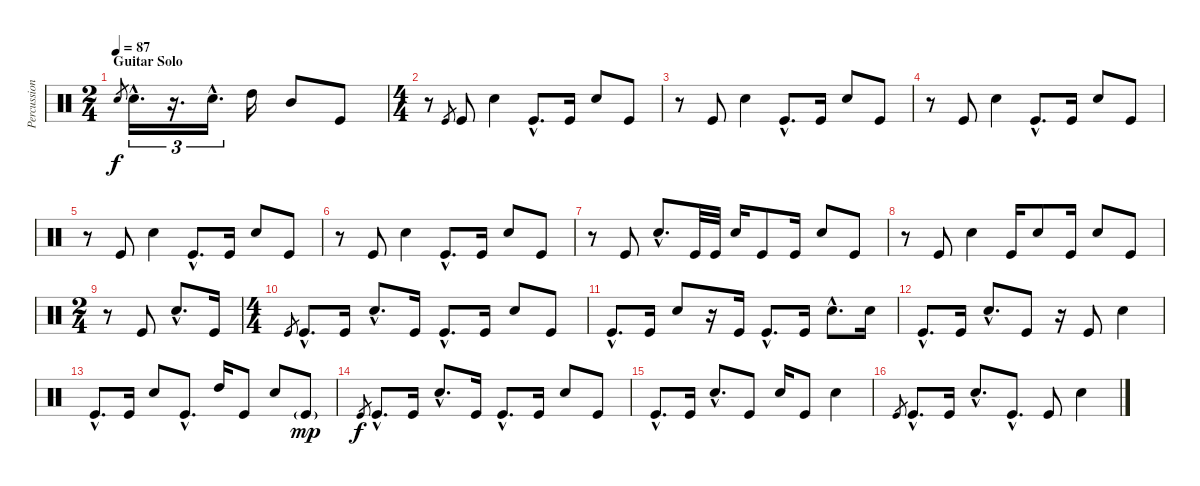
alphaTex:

\track ("Percussion" "Percussion") {instrument percussion}
\staff {score}
\articulation defaults
\ts (2 4)
\section ("" "Guitar Solo")
\tempo 87
\clef neutral
\ks c "Electric Snare (hit)".8{gr dy f} "Electric Snare (hit)"{hac}.16{d tu (3 2)}
r.16{d tu (3 2)} "Electric Snare (hit)"{hac}.16{d tu (3 2)} "High Tom (hit)".16 "Mid Tom (hit)".8 "Kick (hit)".8 |
\ts (4 4)
r.8 "Kick (hit)".8{gr} "Kick (hit)".8 "Electric Snare (hit)".4 "Kick (hit)"{hac}.8{d} "Kick (hit)".16 "Electric Snare (hit)".8 "Kick (hit)".8 |
r.8 "Kick (hit)".8 "Electric Snare (hit)".4 "Kick (hit)"{hac}.8{d} "Kick (hit)".16 "Electric Snare (hit)".8 "Kick (hit)".8 |
r.8 "Kick (hit)".8 "Electric Snare (hit)".4 "Kick (hit)"{hac}.8{d} "Kick (hit)".16 "Electric Snare (hit)".8 "Kick (hit)".8 |
r.8 "Kick (hit)".8 "Electric Snare (hit)".4 "Kick (hit)"{hac}.8{d} "Kick (hit)".16 "Electric Snare (hit)".8 "Kick (hit)".8 |
r.8 "Kick (hit)".8 "Electric Snare (hit)".4 "Kick (hit)"{hac}.8{d} "Kick (hit)".16 "Electric Snare (hit)".8 "Kick (hit)".8 |
r.8 "Kick (hit)".8 "Electric Snare (hit)"{hac}.8{d} "Kick (hit)".32 "Kick (hit)".32 "Electric Snare (hit)".16 "Kick (hit)".8 "Kick (hit)".16 "Electric Snare (hit)".8 "Kick (hit)".8 |
r.8 "Kick (hit)".8 "Electric Snare (hit)".4 "Kick (hit)".16 "Electric Snare (hit)".8 "Kick (hit)".16 "Electric Snare (hit)".8 "Kick (hit)".8 |
\ts (2 4)
r.8 "Kick (hit)".8 "Electric Snare (hit)"{hac}.8{d} "Kick (hit)".16 |
\ts (4 4)
"Kick (hit)".8{gr} "Kick (hit)"{hac}.8{d} "Kick (hit)".16 "Electric Snare (hit)"{hac}.8{d} "Kick (hit)".16 "Kick (hit)"{hac}.8{d} "Kick (hit)".16 "Electric Snare (hit)".8 "Kick (hit)".8 |
"Kick (hit)"{hac}.8{d} "Kick (hit)".16 "Electric Snare (hit)".8 r.16 "Kick (hit)".16 "Kick (hit)"{hac}.8{d} "Kick (hit)".16 "Electric Snare (hit)"{hac}.8{d} "Electric Snare (hit)".16 |
"Kick (hit)"{hac}.8{d} "Kick (hit)".16 "Electric Snare (hit)"{hac}.8{d} "Kick (hit)".8 r.16 "Kick (hit)".8 "Electric Snare (hit)".4 |
"Kick (hit)"{hac}.8{d} "Kick (hit)".16 "Electric Snare (hit)".8 "Kick (hit)"{hac}.8{d} "High Tom (hit)".16 "Kick (hit)".8 "Electric Snare (hit)".8 "Kick (hit)"{g}.8{dy mp} |
"Kick (hit)".8{gr dy f} "Kick (hit)"{hac}.8{d} "Kick (hit)".16 "Electric Snare (hit)"{hac}.8{d} "Kick (hit)".16 "Kick (hit)"{hac}.8{d} "Kick (hit)".16 "Electric Snare (hit)".8 "Kick (hit)".8 |
"Kick (hit)"{hac}.8{d} "Kick (hit)".16 "Electric Snare (hit)"{hac}.8{d} "Kick (hit)".8 "Electric Snare (hit)".16 "Kick (hit)".8 "Electric Snare (hit)".4 |
"Kick (hit)".8{gr} "Kick (hit)"{hac}.8{d} "Kick (hit)".16 "Electric Snare (hit)"{hac}.8{d} "Kick (hit)"{hac}.8{d} "Kick (hit)".8 "Electric Snare (hit)".4
